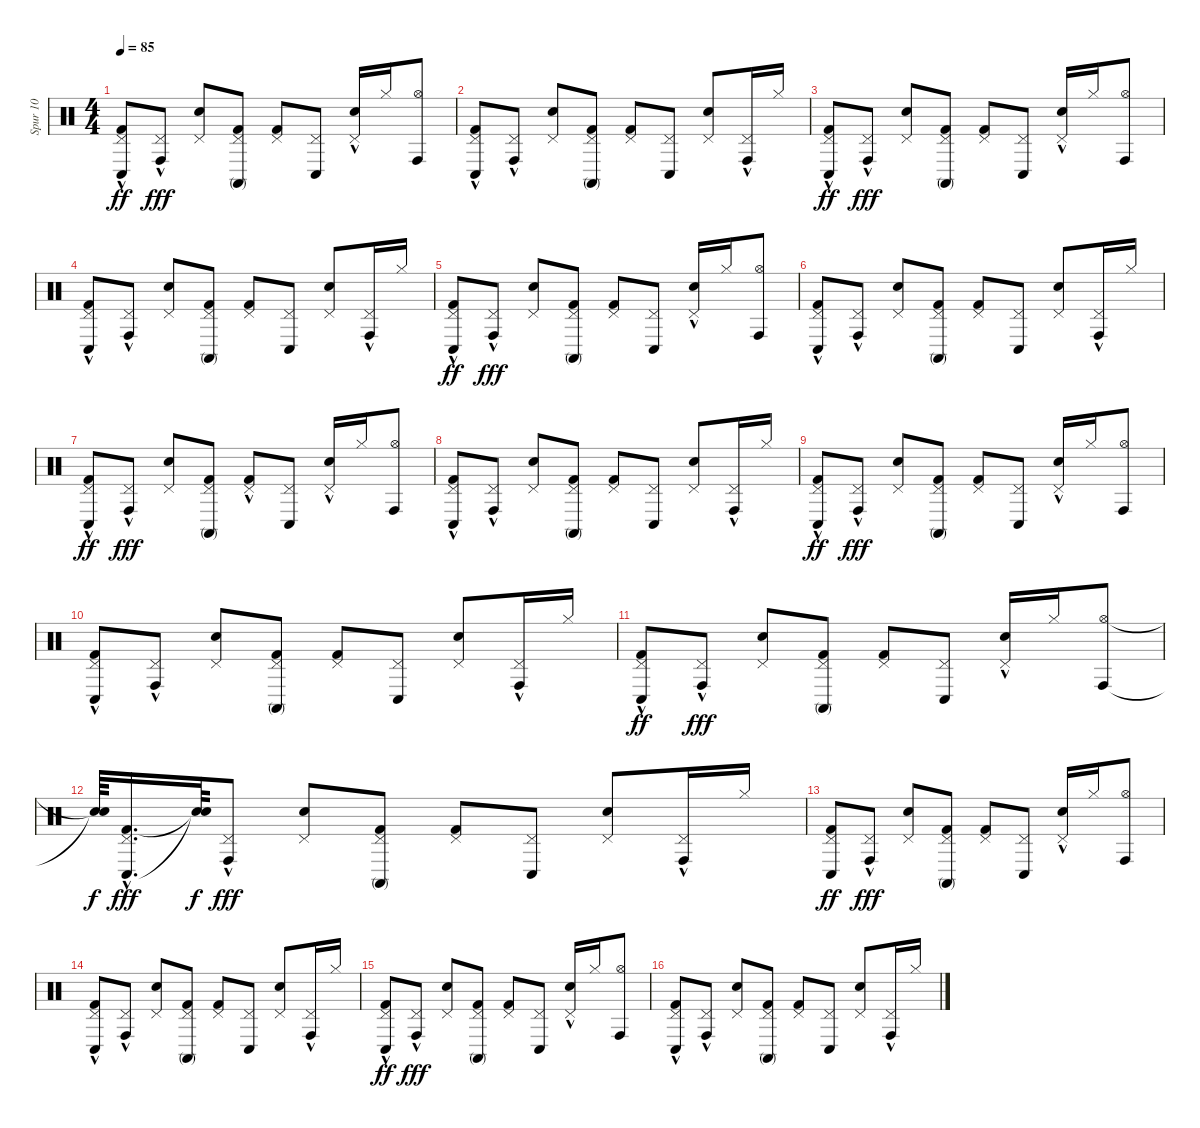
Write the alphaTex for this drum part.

\track ("Spur 10" "Spur 10") {instrument percussion}
\staff {score}
\articulation defaults
\ts (4 4)
\tempo 85
\clef neutral
\ks c
("Pedal Hi-Hat (hit)"{hac} "Kick (hit) 2" "Conga low (hit)").8{dy ff} ("Conga high (hit)" "Pedal Hi-Hat (hit)"{hac}).8{dy fff} ("Pedal Hi-Hat (hit)" "Snare (hit) 2").8 ("Kick (hit) 2" "Conga high (mute)" "Pedal Hi-Hat (hit)").8 ("Kick (hit) 2" "Pedal Hi-Hat (hit)").8 ("Conga low (hit)" "Pedal Hi-Hat (hit)").8 ("Snare (hit) 2" "Pedal Hi-Hat (hit)"{hac}).16 "Hi-Hat (closed)".16 ("Conga high (hit)" "Hi-Hat (open)").8 |
("Kick (hit) 2" "Conga low (hit)" "Pedal Hi-Hat (hit)"{hac}).8 ("Conga high (hit)" "Pedal Hi-Hat (hit)"{hac}).8 ("Snare (hit) 2" "Pedal Hi-Hat (hit)").8 ("Kick (hit) 2" "Conga high (mute)" "Pedal Hi-Hat (hit)").8 ("Kick (hit) 2" "Pedal Hi-Hat (hit)").8 ("Conga low (hit)" "Pedal Hi-Hat (hit)").8 ("Snare (hit) 2" "Pedal Hi-Hat (hit)").8 ("Conga high (hit)" "Pedal Hi-Hat (hit)"{hac}).16 "Hi-Hat (closed)".16 |
("Pedal Hi-Hat (hit)"{hac} "Kick (hit) 2" "Conga low (hit)").8{dy ff} ("Conga high (hit)" "Pedal Hi-Hat (hit)"{hac}).8{dy fff} ("Pedal Hi-Hat (hit)" "Snare (hit) 2").8 ("Kick (hit) 2" "Conga high (mute)" "Pedal Hi-Hat (hit)").8 ("Kick (hit) 2" "Pedal Hi-Hat (hit)").8 ("Conga low (hit)" "Pedal Hi-Hat (hit)").8 ("Snare (hit) 2" "Pedal Hi-Hat (hit)"{hac}).16 "Hi-Hat (closed)".16 ("Conga high (hit)" "Hi-Hat (open)").8 |
("Kick (hit) 2" "Conga low (hit)" "Pedal Hi-Hat (hit)"{hac}).8 ("Conga high (hit)" "Pedal Hi-Hat (hit)"{hac}).8 ("Snare (hit) 2" "Pedal Hi-Hat (hit)").8 ("Kick (hit) 2" "Conga high (mute)" "Pedal Hi-Hat (hit)").8 ("Kick (hit) 2" "Pedal Hi-Hat (hit)").8 ("Conga low (hit)" "Pedal Hi-Hat (hit)").8 ("Snare (hit) 2" "Pedal Hi-Hat (hit)").8 ("Conga high (hit)" "Pedal Hi-Hat (hit)"{hac}).16 "Hi-Hat (closed)".16 |
("Pedal Hi-Hat (hit)"{hac} "Kick (hit) 2" "Conga low (hit)").8{dy ff} ("Conga high (hit)" "Pedal Hi-Hat (hit)"{hac}).8{dy fff} ("Pedal Hi-Hat (hit)" "Snare (hit) 2").8 ("Kick (hit) 2" "Conga high (mute)" "Pedal Hi-Hat (hit)").8 ("Kick (hit) 2" "Pedal Hi-Hat (hit)").8 ("Conga low (hit)" "Pedal Hi-Hat (hit)").8 ("Snare (hit) 2" "Pedal Hi-Hat (hit)"{hac}).16 "Hi-Hat (closed)".16 ("Conga high (hit)" "Hi-Hat (open)").8 |
("Kick (hit) 2" "Conga low (hit)" "Pedal Hi-Hat (hit)"{hac}).8 ("Conga high (hit)" "Pedal Hi-Hat (hit)"{hac}).8 ("Snare (hit) 2" "Pedal Hi-Hat (hit)").8 ("Kick (hit) 2" "Conga high (mute)" "Pedal Hi-Hat (hit)").8 ("Kick (hit) 2" "Pedal Hi-Hat (hit)").8 ("Conga low (hit)" "Pedal Hi-Hat (hit)").8 ("Snare (hit) 2" "Pedal Hi-Hat (hit)").8 ("Conga high (hit)" "Pedal Hi-Hat (hit)"{hac}).16 "Hi-Hat (closed)".16 |
("Pedal Hi-Hat (hit)"{hac} "Kick (hit) 2" "Conga low (hit)").8{dy ff} ("Conga high (hit)" "Pedal Hi-Hat (hit)"{hac}).8{dy fff} ("Pedal Hi-Hat (hit)" "Snare (hit) 2").8 ("Kick (hit) 2" "Conga high (mute)" "Pedal Hi-Hat (hit)").8 ("Kick (hit) 2" "Pedal Hi-Hat (hit)"{hac}).8 ("Conga low (hit)" "Pedal Hi-Hat (hit)").8 ("Snare (hit) 2" "Pedal Hi-Hat (hit)"{hac}).16 "Hi-Hat (closed)".16 ("Conga high (hit)" "Hi-Hat (open)").8 |
("Kick (hit) 2" "Conga low (hit)" "Pedal Hi-Hat (hit)"{hac}).8 ("Conga high (hit)" "Pedal Hi-Hat (hit)"{hac}).8 ("Snare (hit) 2" "Pedal Hi-Hat (hit)").8 ("Kick (hit) 2" "Conga high (mute)" "Pedal Hi-Hat (hit)").8 ("Kick (hit) 2" "Pedal Hi-Hat (hit)").8 ("Conga low (hit)" "Pedal Hi-Hat (hit)").8 ("Snare (hit) 2" "Pedal Hi-Hat (hit)").8 ("Conga high (hit)" "Pedal Hi-Hat (hit)"{hac}).16 "Hi-Hat (closed)".16 |
("Pedal Hi-Hat (hit)"{hac} "Kick (hit) 2" "Conga low (hit)").8{dy ff} ("Conga high (hit)" "Pedal Hi-Hat (hit)"{hac}).8{dy fff} ("Pedal Hi-Hat (hit)" "Snare (hit) 2").8 ("Kick (hit) 2" "Conga high (mute)" "Pedal Hi-Hat (hit)").8 ("Kick (hit) 2" "Pedal Hi-Hat (hit)").8 ("Conga low (hit)" "Pedal Hi-Hat (hit)").8 ("Snare (hit) 2" "Pedal Hi-Hat (hit)"{hac}).16 "Hi-Hat (closed)".16 ("Conga high (hit)" "Hi-Hat (open)").8 |
("Kick (hit) 2" "Conga low (hit)" "Pedal Hi-Hat (hit)"{hac}).8 ("Conga high (hit)" "Pedal Hi-Hat (hit)"{hac}).8 ("Snare (hit) 2" "Pedal Hi-Hat (hit)").8 ("Kick (hit) 2" "Conga high (mute)" "Pedal Hi-Hat (hit)").8 ("Kick (hit) 2" "Pedal Hi-Hat (hit)").8 ("Conga low (hit)" "Pedal Hi-Hat (hit)").8 ("Snare (hit) 2" "Pedal Hi-Hat (hit)").8 ("Conga high (hit)" "Pedal Hi-Hat (hit)"{hac}).16 "Hi-Hat (closed)".16 |
("Pedal Hi-Hat (hit)"{hac} "Kick (hit) 2" "Conga low (hit)").8{dy ff} ("Conga high (hit)" "Pedal Hi-Hat (hit)"{hac}).8{dy fff} ("Pedal Hi-Hat (hit)" "Snare (hit) 2").8 ("Kick (hit) 2" "Conga high (mute)" "Pedal Hi-Hat (hit)").8 ("Kick (hit) 2" "Pedal Hi-Hat (hit)").8 ("Conga low (hit)" "Pedal Hi-Hat (hit)").8 ("Snare (hit) 2" "Pedal Hi-Hat (hit)"{hac}).16 "Hi-Hat (closed)".16 ("Conga high (hit)" "Hi-Hat (open)").8 |
("Snare (hit)"{t} "Snare (hit)"{t}).64{dy f} ("Kick (hit) 2"{hac} "Conga low (hit)"{hac} "Pedal Hi-Hat (hit)").16{d dy fff} ("Snare (hit)"{t} "Snare (hit)"{t}).64{dy f} ("Conga high (hit)" "Pedal Hi-Hat (hit)"{hac}).8{dy fff} ("Snare (hit) 2" "Pedal Hi-Hat (hit)").8 ("Kick (hit) 2" "Conga high (mute)" "Pedal Hi-Hat (hit)").8 ("Kick (hit) 2" "Pedal Hi-Hat (hit)").8 ("Conga low (hit)" "Pedal Hi-Hat (hit)").8 ("Snare (hit) 2" "Pedal Hi-Hat (hit)").8 ("Conga high (hit)" "Pedal Hi-Hat (hit)"{hac}).16 "Hi-Hat (closed)".16 |
("Pedal Hi-Hat (hit)" "Kick (hit) 2" "Conga low (hit)").8{dy ff} ("Conga high (hit)" "Pedal Hi-Hat (hit)"{hac}).8{dy fff} ("Pedal Hi-Hat (hit)" "Snare (hit) 2").8 ("Kick (hit) 2" "Conga high (mute)" "Pedal Hi-Hat (hit)").8 ("Kick (hit) 2" "Pedal Hi-Hat (hit)").8 ("Conga low (hit)" "Pedal Hi-Hat (hit)").8 ("Snare (hit) 2" "Pedal Hi-Hat (hit)"{hac}).16 "Hi-Hat (closed)".16 ("Conga high (hit)" "Hi-Hat (open)").8 |
("Kick (hit) 2" "Conga low (hit)" "Pedal Hi-Hat (hit)"{hac}).8 ("Conga high (hit)" "Pedal Hi-Hat (hit)"{hac}).8 ("Snare (hit) 2" "Pedal Hi-Hat (hit)").8 ("Kick (hit) 2" "Conga high (mute)" "Pedal Hi-Hat (hit)").8 ("Kick (hit) 2" "Pedal Hi-Hat (hit)").8 ("Conga low (hit)" "Pedal Hi-Hat (hit)").8 ("Snare (hit) 2" "Pedal Hi-Hat (hit)").8 ("Conga high (hit)" "Pedal Hi-Hat (hit)"{hac}).16 "Hi-Hat (closed)".16 |
("Pedal Hi-Hat (hit)"{hac} "Kick (hit) 2" "Conga low (hit)").8{dy ff} ("Conga high (hit)" "Pedal Hi-Hat (hit)"{hac}).8{dy fff} ("Pedal Hi-Hat (hit)" "Snare (hit) 2").8 ("Kick (hit) 2" "Conga high (mute)" "Pedal Hi-Hat (hit)").8 ("Kick (hit) 2" "Pedal Hi-Hat (hit)").8 ("Conga low (hit)" "Pedal Hi-Hat (hit)").8 ("Snare (hit) 2" "Pedal Hi-Hat (hit)"{hac}).16 "Hi-Hat (closed)".16 ("Conga high (hit)" "Hi-Hat (open)").8 |
("Kick (hit) 2" "Conga low (hit)" "Pedal Hi-Hat (hit)"{hac}).8 ("Conga high (hit)" "Pedal Hi-Hat (hit)"{hac}).8 ("Snare (hit) 2" "Pedal Hi-Hat (hit)").8 ("Kick (hit) 2" "Conga high (mute)" "Pedal Hi-Hat (hit)").8 ("Kick (hit) 2" "Pedal Hi-Hat (hit)").8 ("Conga low (hit)" "Pedal Hi-Hat (hit)").8 ("Snare (hit) 2" "Pedal Hi-Hat (hit)").8 ("Conga high (hit)" "Pedal Hi-Hat (hit)"{hac}).16 "Hi-Hat (closed)".16
